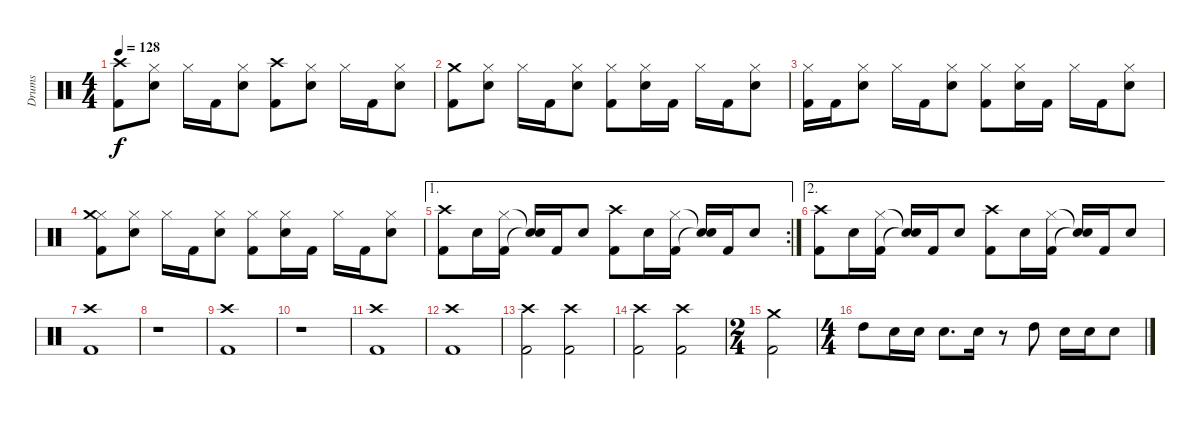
\track ("Drums" "Drums") {instrument percussion}
\staff {score}
\articulation defaults
\ts (4 4)
\tempo 128
\clef neutral
\ks c
("Kick (hit) 2" "Crash high (hit)").8{dy f} ("Snare (hit) 2" "Hi-Hat (closed)").8 "Hi-Hat (closed)".16 "Kick (hit) 2".16 ("Snare (hit) 2" "Hi-Hat (closed)").8 ("Kick (hit) 2" "Crash high (hit)").8 ("Snare (hit) 2" "Hi-Hat (closed)").8 "Hi-Hat (closed)".16 "Kick (hit) 2".16 ("Snare (hit) 2" "Hi-Hat (closed)").8 |
("Kick (hit) 2" "Crash medium (hit)").8 ("Snare (hit) 2" "Hi-Hat (closed)").8 "Hi-Hat (closed)".16 "Kick (hit) 2".16 ("Snare (hit) 2" "Hi-Hat (closed)").8 ("Kick (hit) 2" "Hi-Hat (closed)").8 ("Snare (hit) 2" "Hi-Hat (closed)").16 "Kick (hit) 2".16 "Hi-Hat (closed)".16 "Kick (hit) 2".16 ("Snare (hit) 2" "Hi-Hat (closed)").8 |
("Kick (hit) 2" "Hi-Hat (closed)").16 "Kick (hit) 2".16 ("Snare (hit) 2" "Hi-Hat (closed)").8 "Hi-Hat (closed)".16 "Kick (hit) 2".16 ("Snare (hit) 2" "Hi-Hat (closed)").8 ("Kick (hit) 2" "Hi-Hat (closed)").8 ("Snare (hit) 2" "Hi-Hat (closed)").16 "Kick (hit) 2".16 "Hi-Hat (closed)".16 "Kick (hit) 2".16 ("Snare (hit) 2" "Hi-Hat (closed)").8 |
("Kick (hit) 2" "Hi-Hat (closed)" "Crash medium (hit)").8 ("Snare (hit) 2" "Hi-Hat (closed)").8 "Hi-Hat (closed)".16 "Kick (hit) 2".16 ("Snare (hit) 2" "Hi-Hat (closed)").8 ("Kick (hit) 2" "Hi-Hat (closed)").8 ("Snare (hit) 2" "Hi-Hat (closed)").16 "Kick (hit) 2".16 "Hi-Hat (closed)".16 "Kick (hit) 2".16 ("Snare (hit) 2" "Hi-Hat (closed)").8 |
\ae 1
\rc 2
("Kick (hit) 2" "Crash high (hit)").8 "Snare (hit) 2".16 ("Kick (hit) 2" "Hi-Hat (closed)").16 ("Snare (hit)"{t} "Snare (hit)"{t}).16 "Kick (hit) 2".16 "Snare (hit) 2".8 ("Kick (hit) 2" "Crash high (hit)").8 "Snare (hit) 2".16 ("Kick (hit) 2" "Hi-Hat (closed)").16 ("Snare (hit)"{t} "Snare (hit)"{t}).16 "Kick (hit) 2".16 "Snare (hit) 2".8 |
\ae 2
("Kick (hit) 2" "Crash high (hit)").8 "Snare (hit) 2".16 ("Kick (hit) 2" "Hi-Hat (closed)").16 ("Snare (hit)"{t} "Snare (hit)"{t}).16 "Kick (hit) 2".16 "Snare (hit) 2".8 ("Kick (hit) 2" "Crash high (hit)").8 "Snare (hit) 2".16 ("Kick (hit) 2" "Hi-Hat (closed)").16 ("Snare (hit)"{t} "Snare (hit)"{t}).16 "Kick (hit) 2".16 "Snare (hit) 2".8 |
("Kick (hit) 2" "Crash high (hit)").1 |
r.1 |
("Kick (hit) 2" "Crash high (hit)").1 |
r.1 |
("Kick (hit) 2" "Crash high (hit)").1 |
("Kick (hit) 2" "Crash high (hit)").1 |
("Kick (hit) 2" "Crash high (hit)").2 ("Kick (hit) 2" "Crash high (hit)").2 |
("Kick (hit) 2" "Crash high (hit)").2 ("Kick (hit) 2" "Crash high (hit)").2 |
\ts (2 4)
("Kick (hit) 2" "Crash medium (hit)").2 |
\ts (4 4)
"High Tom (hit)".8 "Snare (hit) 2".16 "Snare (hit) 2".16 "Snare (hit) 2".8{d} "Snare (hit) 2".16 r.8 "High Tom (hit)".8 "Snare (hit) 2".16 "Snare (hit) 2".16 "Snare (hit) 2".8
